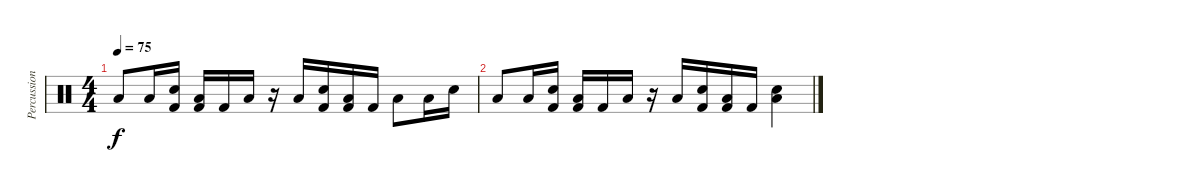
\track ("Percussion" "Percussion") {instrument percussion}
\staff {score}
\articulation defaults
\ts (4 4)
\tempo 75
\clef neutral
\ks c "Low Tom (hit)".8{dy f} "Low Tom (hit)".16
("Kick (hit) 2" "Snare (hit) 2").16 ("Kick (hit) 2" "Low Tom (hit)").16 "Kick (hit) 2".16 "Low Tom (hit)".16 r.16 "Low Tom (hit)".16 ("Kick (hit) 2" "Snare (hit) 2").16 ("Kick (hit) 2" "Low Tom (hit)").16 "Kick (hit) 2".16 "Low Tom (hit)".8 "Low Tom (hit)".16 "Snare (hit) 2".16 |
"Low Tom (hit)".8 "Low Tom (hit)".16 ("Kick (hit) 2" "Snare (hit) 2").16 ("Kick (hit) 2" "Low Tom (hit)").16 "Kick (hit) 2".16 "Low Tom (hit)".16 r.16 "Low Tom (hit)".16 ("Kick (hit) 2" "Snare (hit) 2").16 ("Kick (hit) 2" "Low Tom (hit)").16 "Kick (hit) 2".16 ("Low Tom (hit)" "Snare (hit) 2").4
